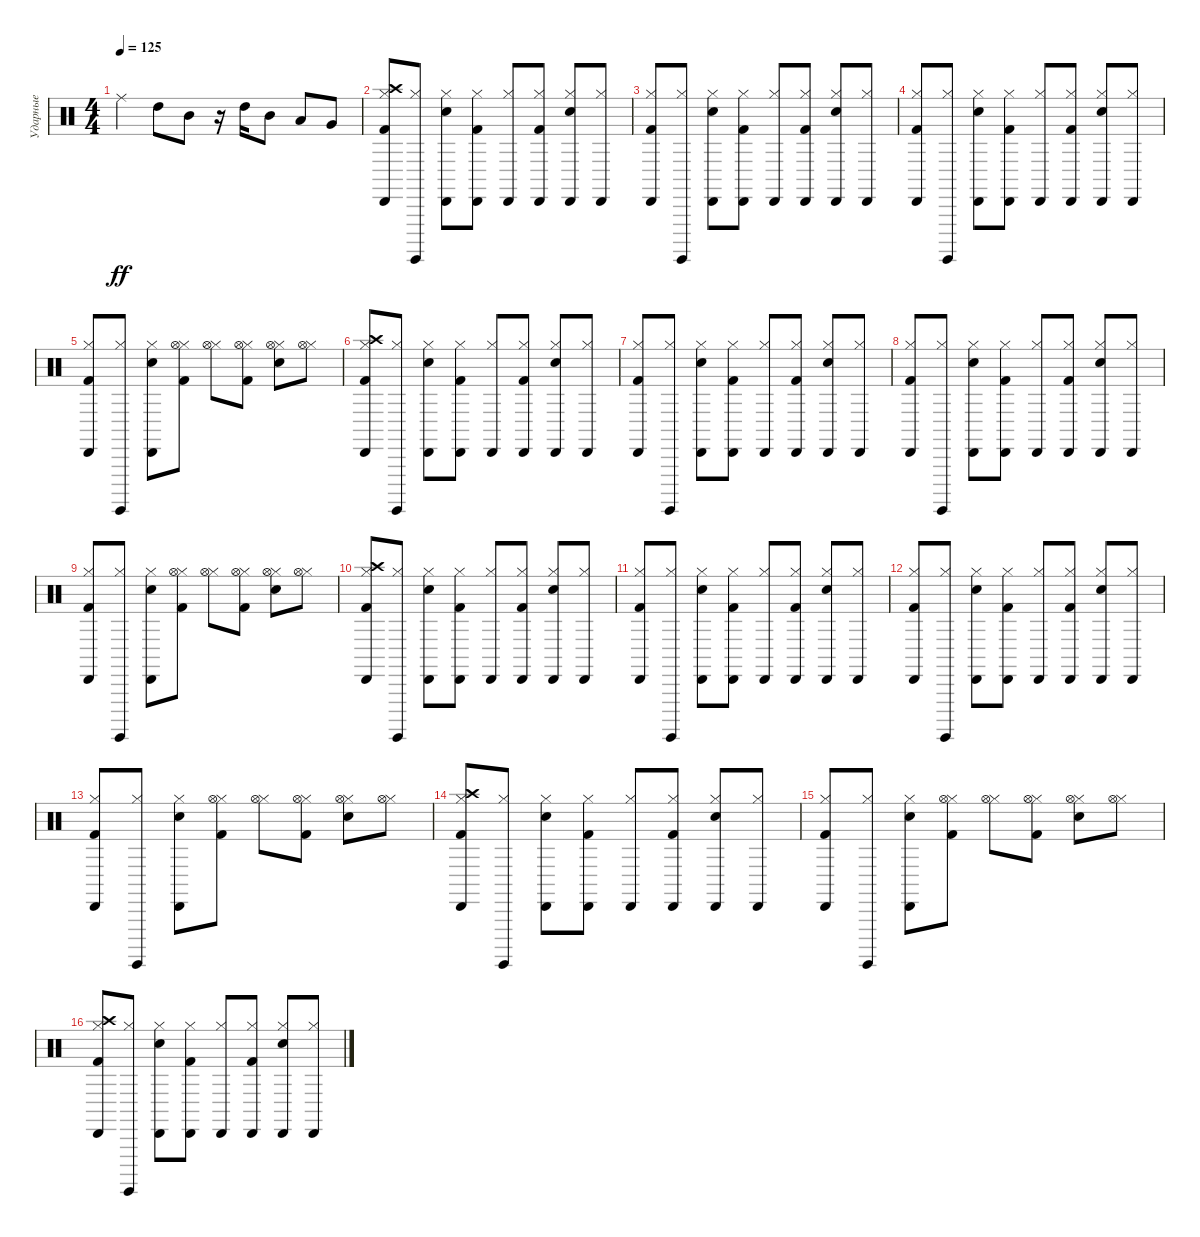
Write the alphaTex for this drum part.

\track ("Ударные" "Ударные") {instrument percussion}
\staff {score}
\articulation defaults
\ts (4 4)
\tempo 125
\clef neutral
\ks c "Ride (middle)".4{dy ff} "High Tom (hit)".8 "Mid Tom (hit)".8
r.16 "High Tom (hit)".16 "Mid Tom (hit)".8 "Low Tom (hit)".8 "Very Low Tom (hit)".8 |
("Crash high (hit)" "Hi-Hat (closed)" "Cabasa (hit)" "Kick (hit) 2").8 ("Hi-Hat (closed)" "Surdo (hit)").8 ("Hi-Hat (closed)" "Cabasa (hit)" "Snare (hit) 2").8 ("Hi-Hat (closed)" "Cabasa (hit)" "Kick (hit) 2").8 ("Hi-Hat (closed)" "Cabasa (hit)").8 ("Hi-Hat (closed)" "Cabasa (hit)" "Kick (hit) 2").8 ("Hi-Hat (closed)" "Cabasa (hit)" "Snare (hit) 2").8 ("Hi-Hat (closed)" "Cabasa (hit)").8 |
("Hi-Hat (closed)" "Cabasa (hit)" "Kick (hit) 2").8 ("Hi-Hat (closed)" "Surdo (hit)").8 ("Hi-Hat (closed)" "Cabasa (hit)" "Snare (hit) 2").8 ("Hi-Hat (closed)" "Cabasa (hit)" "Kick (hit) 2").8 ("Hi-Hat (closed)" "Cabasa (hit)").8 ("Hi-Hat (closed)" "Cabasa (hit)" "Kick (hit) 2").8 ("Hi-Hat (closed)" "Cabasa (hit)" "Snare (hit) 2").8 ("Hi-Hat (closed)" "Cabasa (hit)").8 |
("Hi-Hat (closed)" "Cabasa (hit)" "Kick (hit) 2").8 ("Hi-Hat (closed)" "Surdo (hit)").8 ("Hi-Hat (closed)" "Cabasa (hit)" "Snare (hit) 2").8 ("Hi-Hat (closed)" "Cabasa (hit)" "Kick (hit) 2").8 ("Hi-Hat (closed)" "Cabasa (hit)").8 ("Hi-Hat (closed)" "Cabasa (hit)" "Kick (hit) 2").8 ("Hi-Hat (closed)" "Cabasa (hit)" "Snare (hit) 2").8 ("Hi-Hat (closed)" "Cabasa (hit)").8 |
("Hi-Hat (closed)" "Cabasa (hit)" "Kick (hit) 2").8 ("Hi-Hat (closed)" "Surdo (hit)").8 ("Hi-Hat (closed)" "Cabasa (hit)" "Snare (hit) 2").8 ("Hi-Hat (closed)" "Hi-Hat (open)" "Kick (hit) 2").8 ("Hi-Hat (closed)" "Hi-Hat (open)").8 ("Hi-Hat (closed)" "Hi-Hat (open)" "Kick (hit) 2").8 ("Hi-Hat (closed)" "Hi-Hat (open)" "Snare (hit) 2").8 ("Hi-Hat (closed)" "Hi-Hat (open)").8 |
("Crash high (hit)" "Hi-Hat (closed)" "Cabasa (hit)" "Kick (hit) 2").8 ("Hi-Hat (closed)" "Surdo (hit)").8 ("Hi-Hat (closed)" "Cabasa (hit)" "Snare (hit) 2").8 ("Hi-Hat (closed)" "Cabasa (hit)" "Kick (hit) 2").8 ("Hi-Hat (closed)" "Cabasa (hit)").8 ("Hi-Hat (closed)" "Cabasa (hit)" "Kick (hit) 2").8 ("Hi-Hat (closed)" "Cabasa (hit)" "Snare (hit) 2").8 ("Hi-Hat (closed)" "Cabasa (hit)").8 |
("Hi-Hat (closed)" "Cabasa (hit)" "Kick (hit) 2").8 ("Hi-Hat (closed)" "Surdo (hit)").8 ("Hi-Hat (closed)" "Cabasa (hit)" "Snare (hit) 2").8 ("Hi-Hat (closed)" "Cabasa (hit)" "Kick (hit) 2").8 ("Hi-Hat (closed)" "Cabasa (hit)").8 ("Hi-Hat (closed)" "Cabasa (hit)" "Kick (hit) 2").8 ("Hi-Hat (closed)" "Cabasa (hit)" "Snare (hit) 2").8 ("Hi-Hat (closed)" "Cabasa (hit)").8 |
("Hi-Hat (closed)" "Cabasa (hit)" "Kick (hit) 2").8 ("Hi-Hat (closed)" "Surdo (hit)").8 ("Hi-Hat (closed)" "Cabasa (hit)" "Snare (hit) 2").8 ("Hi-Hat (closed)" "Cabasa (hit)" "Kick (hit) 2").8 ("Hi-Hat (closed)" "Cabasa (hit)").8 ("Hi-Hat (closed)" "Cabasa (hit)" "Kick (hit) 2").8 ("Hi-Hat (closed)" "Cabasa (hit)" "Snare (hit) 2").8 ("Hi-Hat (closed)" "Cabasa (hit)").8 |
("Hi-Hat (closed)" "Cabasa (hit)" "Kick (hit) 2").8 ("Hi-Hat (closed)" "Surdo (hit)").8 ("Hi-Hat (closed)" "Cabasa (hit)" "Snare (hit) 2").8 ("Hi-Hat (closed)" "Hi-Hat (open)" "Kick (hit) 2").8 ("Hi-Hat (closed)" "Hi-Hat (open)").8 ("Hi-Hat (closed)" "Hi-Hat (open)" "Kick (hit) 2").8 ("Hi-Hat (closed)" "Hi-Hat (open)" "Snare (hit) 2").8 ("Hi-Hat (closed)" "Hi-Hat (open)").8 |
("Crash high (hit)" "Hi-Hat (closed)" "Cabasa (hit)" "Kick (hit) 2").8 ("Hi-Hat (closed)" "Surdo (hit)").8 ("Hi-Hat (closed)" "Cabasa (hit)" "Snare (hit) 2").8 ("Hi-Hat (closed)" "Cabasa (hit)" "Kick (hit) 2").8 ("Hi-Hat (closed)" "Cabasa (hit)").8 ("Hi-Hat (closed)" "Cabasa (hit)" "Kick (hit) 2").8 ("Hi-Hat (closed)" "Cabasa (hit)" "Snare (hit) 2").8 ("Hi-Hat (closed)" "Cabasa (hit)").8 |
("Hi-Hat (closed)" "Cabasa (hit)" "Kick (hit) 2").8 ("Hi-Hat (closed)" "Surdo (hit)").8 ("Hi-Hat (closed)" "Cabasa (hit)" "Snare (hit) 2").8 ("Hi-Hat (closed)" "Cabasa (hit)" "Kick (hit) 2").8 ("Hi-Hat (closed)" "Cabasa (hit)").8 ("Hi-Hat (closed)" "Cabasa (hit)" "Kick (hit) 2").8 ("Hi-Hat (closed)" "Cabasa (hit)" "Snare (hit) 2").8 ("Hi-Hat (closed)" "Cabasa (hit)").8 |
("Hi-Hat (closed)" "Cabasa (hit)" "Kick (hit) 2").8 ("Hi-Hat (closed)" "Surdo (hit)").8 ("Hi-Hat (closed)" "Cabasa (hit)" "Snare (hit) 2").8 ("Hi-Hat (closed)" "Cabasa (hit)" "Kick (hit) 2").8 ("Hi-Hat (closed)" "Cabasa (hit)").8 ("Hi-Hat (closed)" "Cabasa (hit)" "Kick (hit) 2").8 ("Hi-Hat (closed)" "Cabasa (hit)" "Snare (hit) 2").8 ("Hi-Hat (closed)" "Cabasa (hit)").8 |
("Hi-Hat (closed)" "Cabasa (hit)" "Kick (hit) 2").8 ("Hi-Hat (closed)" "Surdo (hit)").8 ("Hi-Hat (closed)" "Cabasa (hit)" "Snare (hit) 2").8 ("Hi-Hat (closed)" "Hi-Hat (open)" "Kick (hit) 2").8 ("Hi-Hat (closed)" "Hi-Hat (open)").8 ("Hi-Hat (closed)" "Hi-Hat (open)" "Kick (hit) 2").8 ("Hi-Hat (closed)" "Hi-Hat (open)" "Snare (hit) 2").8 ("Hi-Hat (closed)" "Hi-Hat (open)").8 |
("Crash high (hit)" "Hi-Hat (closed)" "Cabasa (hit)" "Kick (hit) 2").8 ("Hi-Hat (closed)" "Surdo (hit)").8 ("Hi-Hat (closed)" "Cabasa (hit)" "Snare (hit) 2").8 ("Hi-Hat (closed)" "Cabasa (hit)" "Kick (hit) 2").8 ("Hi-Hat (closed)" "Cabasa (hit)").8 ("Hi-Hat (closed)" "Cabasa (hit)" "Kick (hit) 2").8 ("Hi-Hat (closed)" "Cabasa (hit)" "Snare (hit) 2").8 ("Hi-Hat (closed)" "Cabasa (hit)").8 |
("Hi-Hat (closed)" "Cabasa (hit)" "Kick (hit) 2").8 ("Hi-Hat (closed)" "Surdo (hit)").8 ("Hi-Hat (closed)" "Cabasa (hit)" "Snare (hit) 2").8 ("Hi-Hat (closed)" "Hi-Hat (open)" "Kick (hit) 2").8 ("Hi-Hat (closed)" "Hi-Hat (open)").8 ("Hi-Hat (closed)" "Hi-Hat (open)" "Kick (hit) 2").8 ("Hi-Hat (closed)" "Hi-Hat (open)" "Snare (hit) 2").8 ("Hi-Hat (closed)" "Hi-Hat (open)").8 |
("Crash high (hit)" "Hi-Hat (closed)" "Cabasa (hit)" "Kick (hit) 2").8 ("Hi-Hat (closed)" "Surdo (hit)").8 ("Hi-Hat (closed)" "Cabasa (hit)" "Snare (hit) 2").8 ("Hi-Hat (closed)" "Cabasa (hit)" "Kick (hit) 2").8 ("Hi-Hat (closed)" "Cabasa (hit)").8 ("Hi-Hat (closed)" "Cabasa (hit)" "Kick (hit) 2").8 ("Hi-Hat (closed)" "Cabasa (hit)" "Snare (hit) 2").8 ("Hi-Hat (closed)" "Cabasa (hit)").8
